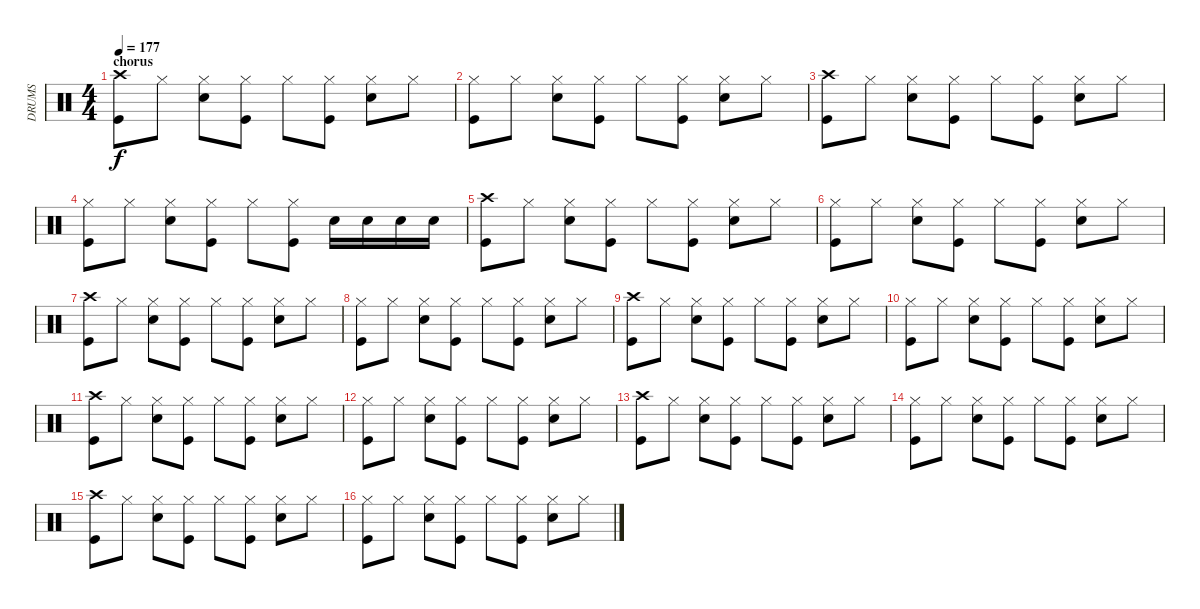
\track ("DRUMS" "DRUMS") {instrument percussion}
\staff {score}
\articulation defaults
\ts (4 4)
\section ("" "chorus")
\tempo 177
\clef neutral
\ks c
("Crash high (hit)" "Kick (hit)").8{dy f} "Hi-Hat (closed)".8 ("Hi-Hat (closed)" "Snare (hit) 2").8 ("Hi-Hat (closed)" "Kick (hit)").8 "Hi-Hat (closed)".8 ("Hi-Hat (closed)" "Kick (hit)").8 ("Hi-Hat (closed)" "Snare (hit) 2").8 "Hi-Hat (closed)".8 |
("Hi-Hat (closed)" "Kick (hit)").8 "Hi-Hat (closed)".8 ("Hi-Hat (closed)" "Snare (hit) 2").8 ("Hi-Hat (closed)" "Kick (hit)").8 "Hi-Hat (closed)".8 ("Hi-Hat (closed)" "Kick (hit)").8 ("Hi-Hat (closed)" "Snare (hit) 2").8 "Hi-Hat (closed)".8 |
("Crash high (hit)" "Kick (hit)").8 "Hi-Hat (closed)".8 ("Hi-Hat (closed)" "Snare (hit) 2").8 ("Hi-Hat (closed)" "Kick (hit)").8 "Hi-Hat (closed)".8 ("Hi-Hat (closed)" "Kick (hit)").8 ("Hi-Hat (closed)" "Snare (hit) 2").8 "Hi-Hat (closed)".8 |
("Hi-Hat (closed)" "Kick (hit)").8 "Hi-Hat (closed)".8 ("Hi-Hat (closed)" "Snare (hit) 2").8 ("Hi-Hat (closed)" "Kick (hit)").8 "Hi-Hat (closed)".8 ("Hi-Hat (closed)" "Kick (hit)").8 "Snare (hit) 2".16 "Snare (hit) 2".16 "Snare (hit) 2".16 "Snare (hit) 2".16 |
("Crash high (hit)" "Kick (hit)").8 "Hi-Hat (closed)".8 ("Hi-Hat (closed)" "Snare (hit) 2").8 ("Hi-Hat (closed)" "Kick (hit)").8 "Hi-Hat (closed)".8 ("Hi-Hat (closed)" "Kick (hit)").8 ("Hi-Hat (closed)" "Snare (hit) 2").8 "Hi-Hat (closed)".8 |
("Hi-Hat (closed)" "Kick (hit)").8 "Hi-Hat (closed)".8 ("Hi-Hat (closed)" "Snare (hit) 2").8 ("Hi-Hat (closed)" "Kick (hit)").8 "Hi-Hat (closed)".8 ("Hi-Hat (closed)" "Kick (hit)").8 ("Hi-Hat (closed)" "Snare (hit) 2").8 "Hi-Hat (closed)".8 |
("Crash high (hit)" "Kick (hit)").8 "Hi-Hat (closed)".8 ("Hi-Hat (closed)" "Snare (hit) 2").8 ("Hi-Hat (closed)" "Kick (hit)").8 "Hi-Hat (closed)".8 ("Hi-Hat (closed)" "Kick (hit)").8 ("Hi-Hat (closed)" "Snare (hit) 2").8 "Hi-Hat (closed)".8 |
("Hi-Hat (closed)" "Kick (hit)").8 "Hi-Hat (closed)".8 ("Hi-Hat (closed)" "Snare (hit) 2").8 ("Hi-Hat (closed)" "Kick (hit)").8 "Hi-Hat (closed)".8 ("Hi-Hat (closed)" "Kick (hit)").8 ("Hi-Hat (closed)" "Snare (hit) 2").8 "Hi-Hat (closed)".8 |
("Crash high (hit)" "Kick (hit)").8 "Hi-Hat (closed)".8 ("Hi-Hat (closed)" "Snare (hit) 2").8 ("Hi-Hat (closed)" "Kick (hit)").8 "Hi-Hat (closed)".8 ("Hi-Hat (closed)" "Kick (hit)").8 ("Hi-Hat (closed)" "Snare (hit) 2").8 "Hi-Hat (closed)".8 |
("Hi-Hat (closed)" "Kick (hit)").8 "Hi-Hat (closed)".8 ("Hi-Hat (closed)" "Snare (hit) 2").8 ("Hi-Hat (closed)" "Kick (hit)").8 "Hi-Hat (closed)".8 ("Hi-Hat (closed)" "Kick (hit)").8 ("Hi-Hat (closed)" "Snare (hit) 2").8 "Hi-Hat (closed)".8 |
("Crash high (hit)" "Kick (hit)").8 "Hi-Hat (closed)".8 ("Hi-Hat (closed)" "Snare (hit) 2").8 ("Hi-Hat (closed)" "Kick (hit)").8 "Hi-Hat (closed)".8 ("Hi-Hat (closed)" "Kick (hit)").8 ("Hi-Hat (closed)" "Snare (hit) 2").8 "Hi-Hat (closed)".8 |
("Hi-Hat (closed)" "Kick (hit)").8 "Hi-Hat (closed)".8 ("Hi-Hat (closed)" "Snare (hit) 2").8 ("Hi-Hat (closed)" "Kick (hit)").8 "Hi-Hat (closed)".8 ("Hi-Hat (closed)" "Kick (hit)").8 ("Hi-Hat (closed)" "Snare (hit) 2").8 "Hi-Hat (closed)".8 |
("Crash high (hit)" "Kick (hit)").8 "Hi-Hat (closed)".8 ("Hi-Hat (closed)" "Snare (hit) 2").8 ("Hi-Hat (closed)" "Kick (hit)").8 "Hi-Hat (closed)".8 ("Hi-Hat (closed)" "Kick (hit)").8 ("Hi-Hat (closed)" "Snare (hit) 2").8 "Hi-Hat (closed)".8 |
("Hi-Hat (closed)" "Kick (hit)").8 "Hi-Hat (closed)".8 ("Hi-Hat (closed)" "Snare (hit) 2").8 ("Hi-Hat (closed)" "Kick (hit)").8 "Hi-Hat (closed)".8 ("Hi-Hat (closed)" "Kick (hit)").8 ("Hi-Hat (closed)" "Snare (hit) 2").8 "Hi-Hat (closed)".8 |
("Crash high (hit)" "Kick (hit)").8 "Hi-Hat (closed)".8 ("Hi-Hat (closed)" "Snare (hit) 2").8 ("Hi-Hat (closed)" "Kick (hit)").8 "Hi-Hat (closed)".8 ("Hi-Hat (closed)" "Kick (hit)").8 ("Hi-Hat (closed)" "Snare (hit) 2").8 "Hi-Hat (closed)".8 |
("Hi-Hat (closed)" "Kick (hit)").8 "Hi-Hat (closed)".8 ("Hi-Hat (closed)" "Snare (hit) 2").8 ("Hi-Hat (closed)" "Kick (hit)").8 "Hi-Hat (closed)".8 ("Hi-Hat (closed)" "Kick (hit)").8 ("Hi-Hat (closed)" "Snare (hit) 2").8 "Hi-Hat (closed)".8
